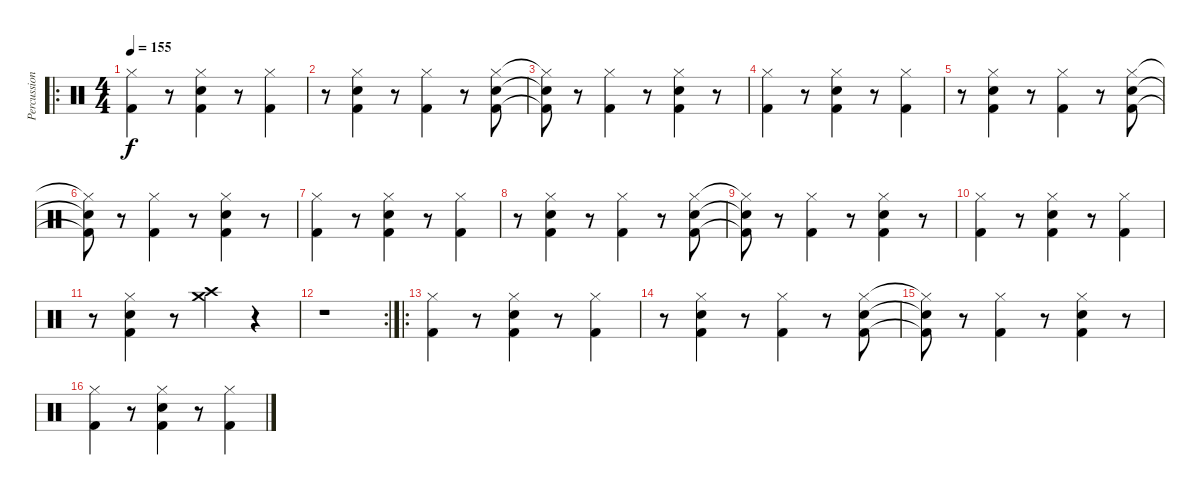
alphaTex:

\track ("Percussion" "Percussion") {instrument percussion}
\staff {score}
\articulation defaults
\ro
\ts (4 4)
\tempo 155
\clef neutral
\ks c
("Hi-Hat (closed)" "Kick (hit) 2").4{dy f} r.8 ("Snare (hit) 2" "Hi-Hat (closed)" "Kick (hit) 2").4 r.8 ("Hi-Hat (closed)" "Kick (hit) 2").4 |
r.8 ("Snare (hit) 2" "Hi-Hat (closed)" "Kick (hit) 2").4 r.8 ("Hi-Hat (closed)" "Kick (hit) 2").4 r.8 ("Snare (hit) 2" "Hi-Hat (closed)" "Kick (hit) 2").8 |
("Snare (hit) 2"{t} "Hi-Hat (closed)"{t} "Kick (hit) 2"{t}).8 r.8 ("Hi-Hat (closed)" "Kick (hit) 2").4 r.8 ("Snare (hit) 2" "Hi-Hat (closed)" "Kick (hit) 2").4 r.8 |
("Hi-Hat (closed)" "Kick (hit) 2").4 r.8 ("Snare (hit) 2" "Hi-Hat (closed)" "Kick (hit) 2").4 r.8 ("Hi-Hat (closed)" "Kick (hit) 2").4 |
r.8 ("Snare (hit) 2" "Hi-Hat (closed)" "Kick (hit) 2").4 r.8 ("Hi-Hat (closed)" "Kick (hit) 2").4 r.8 ("Snare (hit) 2" "Hi-Hat (closed)" "Kick (hit) 2").8 |
("Snare (hit) 2"{t} "Hi-Hat (closed)"{t} "Kick (hit) 2"{t}).8 r.8 ("Hi-Hat (closed)" "Kick (hit) 2").4 r.8 ("Snare (hit) 2" "Hi-Hat (closed)" "Kick (hit) 2").4 r.8 |
("Hi-Hat (closed)" "Kick (hit) 2").4 r.8 ("Snare (hit) 2" "Hi-Hat (closed)" "Kick (hit) 2").4 r.8 ("Hi-Hat (closed)" "Kick (hit) 2").4 |
r.8 ("Snare (hit) 2" "Hi-Hat (closed)" "Kick (hit) 2").4 r.8 ("Hi-Hat (closed)" "Kick (hit) 2").4 r.8 ("Snare (hit) 2" "Hi-Hat (closed)" "Kick (hit) 2").8 |
("Snare (hit) 2"{t} "Hi-Hat (closed)"{t} "Kick (hit) 2"{t}).8 r.8 ("Hi-Hat (closed)" "Kick (hit) 2").4 r.8 ("Snare (hit) 2" "Hi-Hat (closed)" "Kick (hit) 2").4 r.8 |
("Hi-Hat (closed)" "Kick (hit) 2").4 r.8 ("Snare (hit) 2" "Hi-Hat (closed)" "Kick (hit) 2").4 r.8 ("Hi-Hat (closed)" "Kick (hit) 2").4 |
r.8 ("Snare (hit) 2" "Hi-Hat (closed)" "Kick (hit) 2").4 r.8 ("Crash high (hit)" "Crash medium (hit)").4 r.4 |
\rc 2
r.1 |
\ro
("Hi-Hat (closed)" "Kick (hit) 2").4 r.8 ("Snare (hit) 2" "Hi-Hat (closed)" "Kick (hit) 2").4 r.8 ("Hi-Hat (closed)" "Kick (hit) 2").4 |
r.8 ("Snare (hit) 2" "Hi-Hat (closed)" "Kick (hit) 2").4 r.8 ("Hi-Hat (closed)" "Kick (hit) 2").4 r.8 ("Snare (hit) 2" "Hi-Hat (closed)" "Kick (hit) 2").8 |
("Snare (hit) 2"{t} "Hi-Hat (closed)"{t} "Kick (hit) 2"{t}).8 r.8 ("Hi-Hat (closed)" "Kick (hit) 2").4 r.8 ("Snare (hit) 2" "Hi-Hat (closed)" "Kick (hit) 2").4 r.8 |
("Hi-Hat (closed)" "Kick (hit) 2").4 r.8 ("Snare (hit) 2" "Hi-Hat (closed)" "Kick (hit) 2").4 r.8 ("Hi-Hat (closed)" "Kick (hit) 2").4
